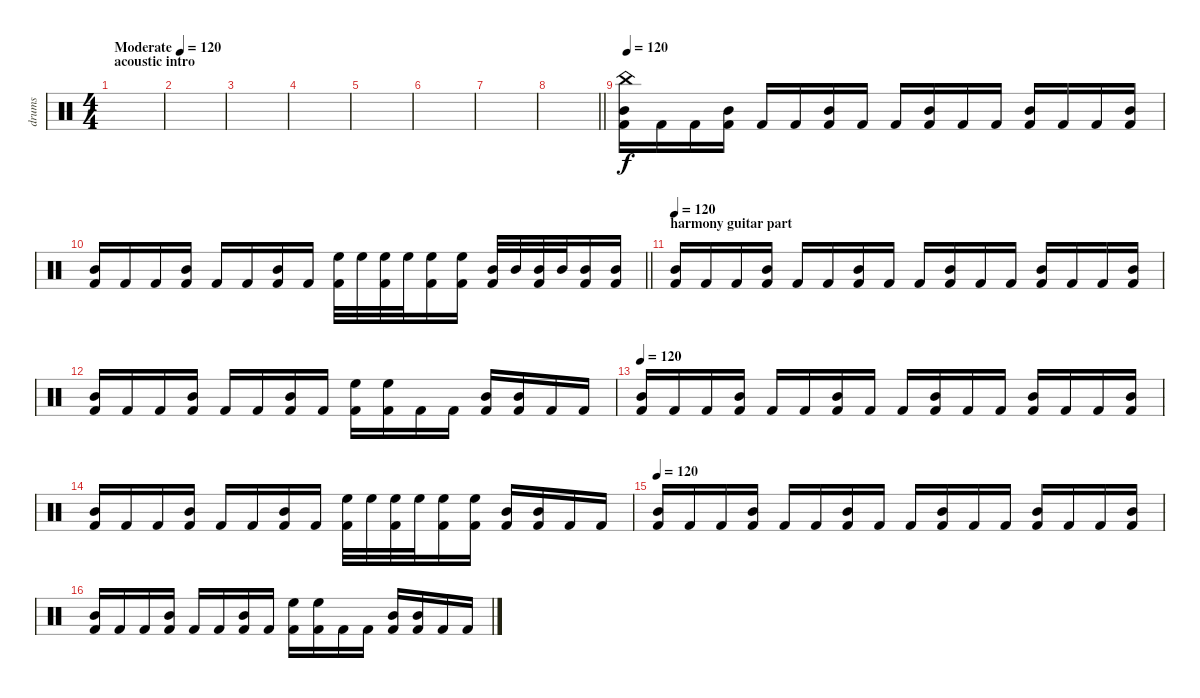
\track ("drums" "drums") {instrument percussion}
\staff {score}
\articulation defaults
\ts (4 4)
\section ("" "acoustic intro")
\tempo (120 "Moderate")
\clef neutral
\ks c
|
|
|
|
|
|
|
\barLineRight lightlight
|
\tempo 120
("China (hit)" "Mid Tom (hit)" "Kick (hit) 2").16 "Kick (hit) 2".16 "Kick (hit) 2".16 ("Mid Tom (hit)" "Kick (hit) 2").16 "Kick (hit) 2".16 "Kick (hit) 2".16 ("Mid Tom (hit)" "Kick (hit) 2").16 "Kick (hit) 2".16 "Kick (hit) 2".16 ("Mid Tom (hit)" "Kick (hit) 2").16 "Kick (hit) 2".16 "Kick (hit) 2".16 ("Mid Tom (hit)" "Kick (hit) 2").16 "Kick (hit) 2".16 "Kick (hit) 2".16 ("Mid Tom (hit)" "Kick (hit) 2").16 |
\barLineRight lightlight
("Mid Tom (hit)" "Kick (hit) 2").16 "Kick (hit) 2".16 "Kick (hit) 2".16 ("Mid Tom (hit)" "Kick (hit) 2").16 "Kick (hit) 2".16 "Kick (hit) 2".16 ("Mid Tom (hit)" "Kick (hit) 2").16 "Kick (hit) 2".16 ("High Floor Tom (hit)" "Kick (hit) 2").32 "High Floor Tom (hit)".32 ("High Floor Tom (hit)" "Kick (hit) 2").32 "High Floor Tom (hit)".32 ("High Floor Tom (hit)" "Kick (hit) 2").16 ("High Floor Tom (hit)" "Kick (hit) 2").16 ("Mid Tom (hit)" "Kick (hit) 2").32 "Mid Tom (hit)".32 ("Mid Tom (hit)" "Kick (hit) 2").32 "Mid Tom (hit)".32 ("Mid Tom (hit)" "Kick (hit) 2").16 ("Mid Tom (hit)" "Kick (hit) 2").16 |
\section ("" "harmony guitar part")
\tempo 120
("Mid Tom (hit)" "Kick (hit) 2").16 "Kick (hit) 2".16 "Kick (hit) 2".16 ("Mid Tom (hit)" "Kick (hit) 2").16 "Kick (hit) 2".16 "Kick (hit) 2".16 ("Mid Tom (hit)" "Kick (hit) 2").16 "Kick (hit) 2".16 "Kick (hit) 2".16 ("Mid Tom (hit)" "Kick (hit) 2").16 "Kick (hit) 2".16 "Kick (hit) 2".16 ("Mid Tom (hit)" "Kick (hit) 2").16 "Kick (hit) 2".16 "Kick (hit) 2".16 ("Mid Tom (hit)" "Kick (hit) 2").16 |
("Mid Tom (hit)" "Kick (hit) 2").16 "Kick (hit) 2".16 "Kick (hit) 2".16 ("Mid Tom (hit)" "Kick (hit) 2").16 "Kick (hit) 2".16 "Kick (hit) 2".16 ("Mid Tom (hit)" "Kick (hit) 2").16 "Kick (hit) 2".16 ("High Floor Tom (hit)" "Kick (hit) 2").16 ("High Floor Tom (hit)" "Kick (hit) 2").16 "Kick (hit) 2".16 "Kick (hit) 2".16 ("Mid Tom (hit)" "Kick (hit) 2").16 ("Mid Tom (hit)" "Kick (hit) 2").16 "Kick (hit) 2".16 "Kick (hit) 2".16 |
\tempo 120
("Mid Tom (hit)" "Kick (hit) 2").16 "Kick (hit) 2".16 "Kick (hit) 2".16 ("Mid Tom (hit)" "Kick (hit) 2").16 "Kick (hit) 2".16 "Kick (hit) 2".16 ("Mid Tom (hit)" "Kick (hit) 2").16 "Kick (hit) 2".16 "Kick (hit) 2".16 ("Mid Tom (hit)" "Kick (hit) 2").16 "Kick (hit) 2".16 "Kick (hit) 2".16 ("Mid Tom (hit)" "Kick (hit) 2").16 "Kick (hit) 2".16 "Kick (hit) 2".16 ("Mid Tom (hit)" "Kick (hit) 2").16 |
("Mid Tom (hit)" "Kick (hit) 2").16 "Kick (hit) 2".16 "Kick (hit) 2".16 ("Mid Tom (hit)" "Kick (hit) 2").16 "Kick (hit) 2".16 "Kick (hit) 2".16 ("Mid Tom (hit)" "Kick (hit) 2").16 "Kick (hit) 2".16 ("High Floor Tom (hit)" "Kick (hit) 2").32 "High Floor Tom (hit)".32 ("High Floor Tom (hit)" "Kick (hit) 2").32 "High Floor Tom (hit)".32 ("High Floor Tom (hit)" "Kick (hit) 2").16 ("High Floor Tom (hit)" "Kick (hit) 2").16 ("Mid Tom (hit)" "Kick (hit) 2").16 ("Mid Tom (hit)" "Kick (hit) 2").16 "Kick (hit) 2".16 "Kick (hit) 2".16 |
\tempo 120
("Mid Tom (hit)" "Kick (hit) 2").16 "Kick (hit) 2".16 "Kick (hit) 2".16 ("Mid Tom (hit)" "Kick (hit) 2").16 "Kick (hit) 2".16 "Kick (hit) 2".16 ("Mid Tom (hit)" "Kick (hit) 2").16 "Kick (hit) 2".16 "Kick (hit) 2".16 ("Mid Tom (hit)" "Kick (hit) 2").16 "Kick (hit) 2".16 "Kick (hit) 2".16 ("Mid Tom (hit)" "Kick (hit) 2").16 "Kick (hit) 2".16 "Kick (hit) 2".16 ("Mid Tom (hit)" "Kick (hit) 2").16 |
("Mid Tom (hit)" "Kick (hit) 2").16 "Kick (hit) 2".16 "Kick (hit) 2".16 ("Mid Tom (hit)" "Kick (hit) 2").16 "Kick (hit) 2".16 "Kick (hit) 2".16 ("Mid Tom (hit)" "Kick (hit) 2").16 "Kick (hit) 2".16 ("High Floor Tom (hit)" "Kick (hit) 2").16 ("High Floor Tom (hit)" "Kick (hit) 2").16 "Kick (hit) 2".16 "Kick (hit) 2".16 ("Mid Tom (hit)" "Kick (hit) 2").16 ("Mid Tom (hit)" "Kick (hit) 2").16 "Kick (hit) 2".16 "Kick (hit) 2".16
